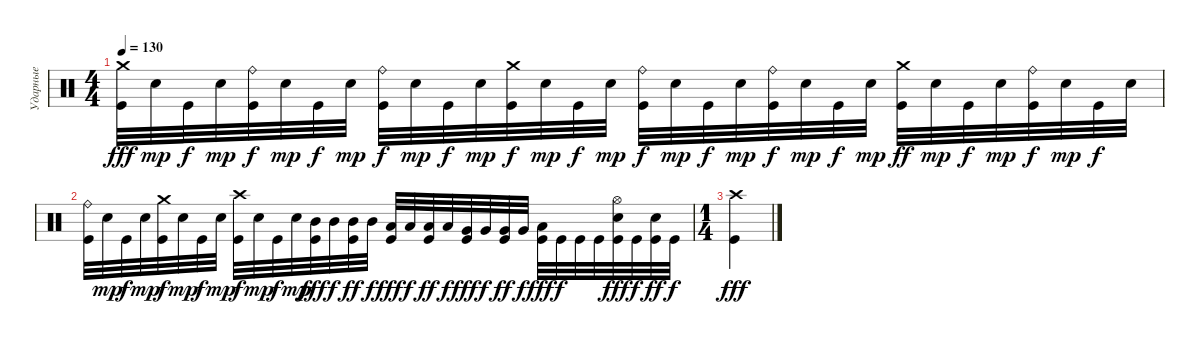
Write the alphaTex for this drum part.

\track ("Ударные" "Ударные") {instrument percussion}
\staff {score}
\articulation defaults
\ts (4 4)
\tempo 130
\clef neutral
\ks c
("Crash medium (hit)" "Kick (hit)").32{dy fff} "Electric Snare (hit)".32{dy mp} "Kick (hit)".32{dy f} "Electric Snare (hit)".32{dy mp} ("Ride (bell)" "Kick (hit)").32{dy f} "Electric Snare (hit)".32{dy mp} "Kick (hit)".32{dy f} "Electric Snare (hit)".32{dy mp} ("Ride (bell)" "Kick (hit)").32{dy f} "Electric Snare (hit)".32{dy mp} "Kick (hit)".32{dy f} "Electric Snare (hit)".32{dy mp} ("Crash medium (hit)" "Kick (hit)").32{dy f} "Electric Snare (hit)".32{dy mp} "Kick (hit)".32{dy f} "Electric Snare (hit)".32{dy mp} ("Ride (bell)" "Kick (hit)").32{dy f} "Electric Snare (hit)".32{dy mp} "Kick (hit)".32{dy f} "Electric Snare (hit)".32{dy mp} ("Ride (bell)" "Kick (hit)").32{dy f} "Electric Snare (hit)".32{dy mp} "Kick (hit)".32{dy f} "Electric Snare (hit)".32{dy mp} ("Crash medium (hit)" "Kick (hit)").32{dy ff} "Electric Snare (hit)".32{dy mp} "Kick (hit)".32{dy f} "Electric Snare (hit)".32{dy mp} ("Ride (bell)" "Kick (hit)").32{dy f} "Electric Snare (hit)".32{dy mp} "Kick (hit)".32{dy f} "Electric Snare (hit)".32 |
("Ride (bell)" "Kick (hit)").32 "Electric Snare (hit)".32{dy mp} "Kick (hit)".32{dy f} "Electric Snare (hit)".32{dy mp} ("Crash medium (hit)" "Kick (hit)").32{dy f} "Electric Snare (hit)".32{dy mp} "Kick (hit)".32{dy f} "Electric Snare (hit)".32{dy mp} ("Crash high (hit)" "Kick (hit)").32{dy f} "Electric Snare (hit)".32{dy mp} "Kick (hit)".32{dy f} "Electric Snare (hit)".32{dy mp} ("Mid Tom (hit)" "Kick (hit)").32{dy fff} "Mid Tom (hit)".32{dy f} ("Mid Tom (hit)" "Kick (hit)").32{dy ff} "Mid Tom (hit)".32{dy f} ("Low Tom (hit)" "Kick (hit)").32{dy fff} "Low Tom (hit)".32{dy f} ("Low Tom (hit)" "Kick (hit)").32{dy ff} "Low Tom (hit)".32{dy f} ("Very Low Tom (hit)" "Kick (hit)").32{dy fff} "Very Low Tom (hit)".32{dy f} ("Very Low Tom (hit)" "Kick (hit)").32{dy ff} "Very Low Tom (hit)".32{dy f} ("Low Floor Tom (hit)" "Kick (hit)").32{dy fff} "Kick (hit)".32{dy f} "Kick (hit)".32 "Kick (hit)".32 ("Hi-Hat (open)" "Electric Snare (hit)" "Kick (hit)").32{dy fff} "Kick (hit)".32{dy f} ("Electric Snare (hit)" "Kick (hit)").32{dy ff} "Kick (hit)".32{dy f} |
\ts (1 4)
("Crash high (hit)" "Kick (hit)").4{dy fff}
